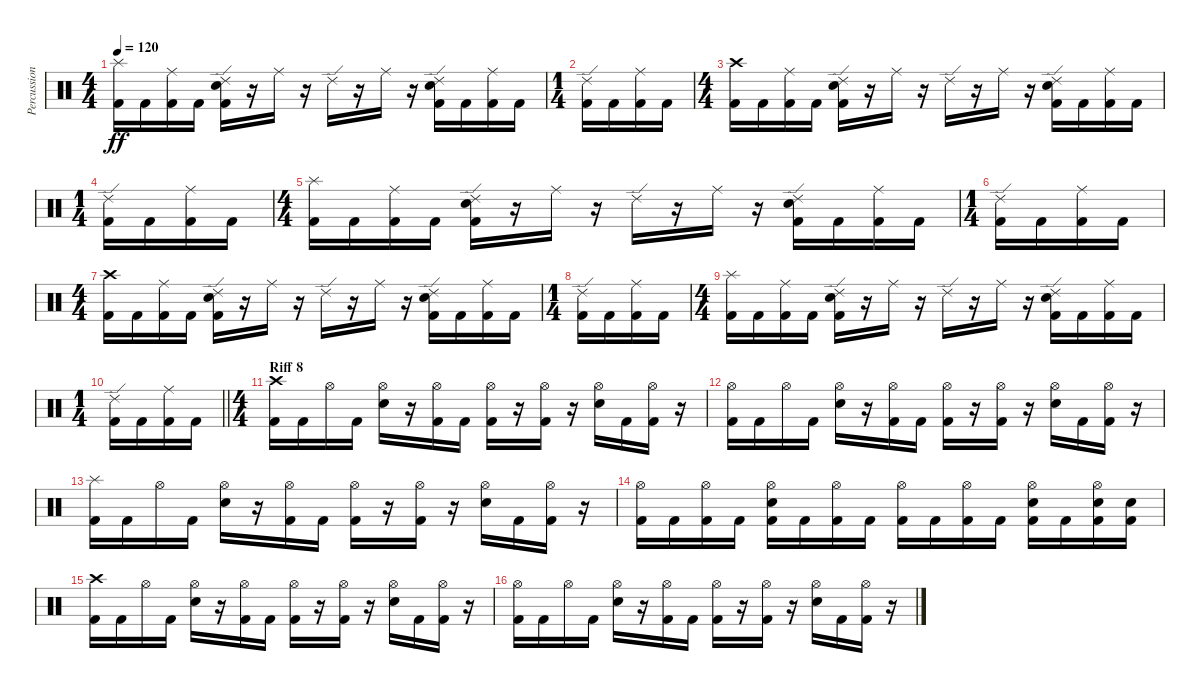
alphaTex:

\track ("Percussion" "Percussion") {instrument percussion}
\staff {score}
\articulation defaults
\ts (4 4)
\tempo 120
\clef neutral
\ks c
("Splash (hit)" "Kick (hit) 2").16{dy ff} "Kick (hit) 2".16 ("Ride (middle)" "Kick (hit) 2").16 "Kick (hit) 2".16 ("Ride (edge) 2" "Electric Snare (hit)" "Kick (hit) 2").16 r.16 "Ride (middle)".16 r.16 "Ride (edge) 2".16 r.16 "Ride (middle)".16 r.16 ("Ride (edge) 2" "Electric Snare (hit)" "Kick (hit) 2").16 "Kick (hit) 2".16 ("Ride (middle)" "Kick (hit) 2").16 "Kick (hit) 2".16 |
\ts (1 4)
("Ride (edge) 2" "Kick (hit) 2").16 "Kick (hit) 2".16 ("Ride (middle)" "Kick (hit) 2").16 "Kick (hit) 2".16 |
\ts (4 4)
("Crash high (hit)" "Kick (hit) 2").16 "Kick (hit) 2".16 ("Ride (middle)" "Kick (hit) 2").16 "Kick (hit) 2".16 ("Ride (edge) 2" "Electric Snare (hit)" "Kick (hit) 2").16 r.16 "Ride (middle)".16 r.16 "Ride (edge) 2".16 r.16 "Ride (middle)".16 r.16 ("Ride (edge) 2" "Electric Snare (hit)" "Kick (hit) 2").16 "Kick (hit) 2".16 ("Ride (middle)" "Kick (hit) 2").16 "Kick (hit) 2".16 |
\ts (1 4)
("Ride (edge) 2" "Kick (hit) 2").16 "Kick (hit) 2".16 ("Ride (middle)" "Kick (hit) 2").16 "Kick (hit) 2".16 |
\ts (4 4)
("Splash (hit)" "Kick (hit) 2").16 "Kick (hit) 2".16 ("Ride (middle)" "Kick (hit) 2").16 "Kick (hit) 2".16 ("Ride (edge) 2" "Electric Snare (hit)" "Kick (hit) 2").16 r.16 "Ride (middle)".16 r.16 "Ride (edge) 2".16 r.16 "Ride (middle)".16 r.16 ("Ride (edge) 2" "Electric Snare (hit)" "Kick (hit) 2").16 "Kick (hit) 2".16 ("Ride (middle)" "Kick (hit) 2").16 "Kick (hit) 2".16 |
\ts (1 4)
("Ride (edge) 2" "Kick (hit) 2").16 "Kick (hit) 2".16 ("Ride (middle)" "Kick (hit) 2").16 "Kick (hit) 2".16 |
\ts (4 4)
("Crash high (hit)" "Kick (hit) 2").16 "Kick (hit) 2".16 ("Ride (middle)" "Kick (hit) 2").16 "Kick (hit) 2".16 ("Ride (edge) 2" "Electric Snare (hit)" "Kick (hit) 2").16 r.16 "Ride (middle)".16 r.16 "Ride (edge) 2".16 r.16 "Ride (middle)".16 r.16 ("Ride (edge) 2" "Electric Snare (hit)" "Kick (hit) 2").16 "Kick (hit) 2".16 ("Ride (middle)" "Kick (hit) 2").16 "Kick (hit) 2".16 |
\ts (1 4)
("Ride (edge) 2" "Kick (hit) 2").16 "Kick (hit) 2".16 ("Ride (middle)" "Kick (hit) 2").16 "Kick (hit) 2".16 |
\ts (4 4)
("Splash (hit)" "Kick (hit) 2").16 "Kick (hit) 2".16 ("Ride (middle)" "Kick (hit) 2").16 "Kick (hit) 2".16 ("Ride (edge) 2" "Electric Snare (hit)" "Kick (hit) 2").16 r.16 "Ride (middle)".16 r.16 "Ride (edge) 2".16 r.16 "Ride (middle)".16 r.16 ("Ride (edge) 2" "Electric Snare (hit)" "Kick (hit) 2").16 "Kick (hit) 2".16 ("Ride (middle)" "Kick (hit) 2").16 "Kick (hit) 2".16 |
\ts (1 4)
\barLineRight lightlight
("Ride (edge) 2" "Kick (hit) 2").16 "Kick (hit) 2".16 ("Ride (middle)" "Kick (hit) 2").16 "Kick (hit) 2".16 |
\ts (4 4)
\section ("" "Riff 8")
("Crash high (hit)" "Kick (hit) 2").16 "Kick (hit) 2".16 "Hi-Hat (open)".16 "Kick (hit) 2".16 ("Hi-Hat (open)" "Electric Snare (hit)").16 r.16 ("Hi-Hat (open)" "Kick (hit) 2").16 "Kick (hit) 2".16 ("Hi-Hat (open)" "Kick (hit) 2").16 r.16 ("Hi-Hat (open)" "Kick (hit) 2").16 r.16 ("Hi-Hat (open)" "Electric Snare (hit)").16 "Kick (hit) 2".16 ("Hi-Hat (open)" "Kick (hit) 2").16 r.16 |
("Hi-Hat (open)" "Kick (hit) 2").16 "Kick (hit) 2".16 "Hi-Hat (open)".16 "Kick (hit) 2".16 ("Hi-Hat (open)" "Electric Snare (hit)").16 r.16 ("Hi-Hat (open)" "Kick (hit) 2").16 "Kick (hit) 2".16 ("Hi-Hat (open)" "Kick (hit) 2").16 r.16 ("Hi-Hat (open)" "Kick (hit) 2").16 r.16 ("Hi-Hat (open)" "Electric Snare (hit)").16 "Kick (hit) 2".16 ("Hi-Hat (open)" "Kick (hit) 2").16 r.16 |
("Splash (hit)" "Kick (hit) 2").16 "Kick (hit) 2".16 "Hi-Hat (open)".16 "Kick (hit) 2".16 ("Hi-Hat (open)" "Electric Snare (hit)").16 r.16 ("Hi-Hat (open)" "Kick (hit) 2").16 "Kick (hit) 2".16 ("Hi-Hat (open)" "Kick (hit) 2").16 r.16 ("Hi-Hat (open)" "Kick (hit) 2").16 r.16 ("Hi-Hat (open)" "Electric Snare (hit)").16 "Kick (hit) 2".16 ("Hi-Hat (open)" "Kick (hit) 2").16 r.16 |
("Hi-Hat (open)" "Kick (hit) 2").16 "Kick (hit) 2".16 ("Hi-Hat (open)" "Kick (hit) 2").16 "Kick (hit) 2".16 ("Hi-Hat (open)" "Electric Snare (hit)" "Kick (hit) 2").16 "Kick (hit) 2".16 ("Hi-Hat (open)" "Kick (hit) 2").16 "Kick (hit) 2".16 ("Hi-Hat (open)" "Kick (hit) 2").16 "Kick (hit) 2".16 ("Hi-Hat (open)" "Kick (hit) 2").16 "Kick (hit) 2".16 ("Hi-Hat (open)" "Electric Snare (hit)" "Kick (hit) 2").16 "Kick (hit) 2".16 ("Hi-Hat (open)" "Electric Snare (hit)" "Kick (hit) 2").16 ("Electric Snare (hit)" "Kick (hit) 2").16 |
("Crash high (hit)" "Kick (hit) 2").16 "Kick (hit) 2".16 "Hi-Hat (open)".16 "Kick (hit) 2".16 ("Hi-Hat (open)" "Electric Snare (hit)").16 r.16 ("Hi-Hat (open)" "Kick (hit) 2").16 "Kick (hit) 2".16 ("Hi-Hat (open)" "Kick (hit) 2").16 r.16 ("Hi-Hat (open)" "Kick (hit) 2").16 r.16 ("Hi-Hat (open)" "Electric Snare (hit)").16 "Kick (hit) 2".16 ("Hi-Hat (open)" "Kick (hit) 2").16 r.16 |
("Hi-Hat (open)" "Kick (hit) 2").16 "Kick (hit) 2".16 "Hi-Hat (open)".16 "Kick (hit) 2".16 ("Hi-Hat (open)" "Electric Snare (hit)").16 r.16 ("Hi-Hat (open)" "Kick (hit) 2").16 "Kick (hit) 2".16 ("Hi-Hat (open)" "Kick (hit) 2").16 r.16 ("Hi-Hat (open)" "Kick (hit) 2").16 r.16 ("Hi-Hat (open)" "Electric Snare (hit)").16 "Kick (hit) 2".16 ("Hi-Hat (open)" "Kick (hit) 2").16 r.16
